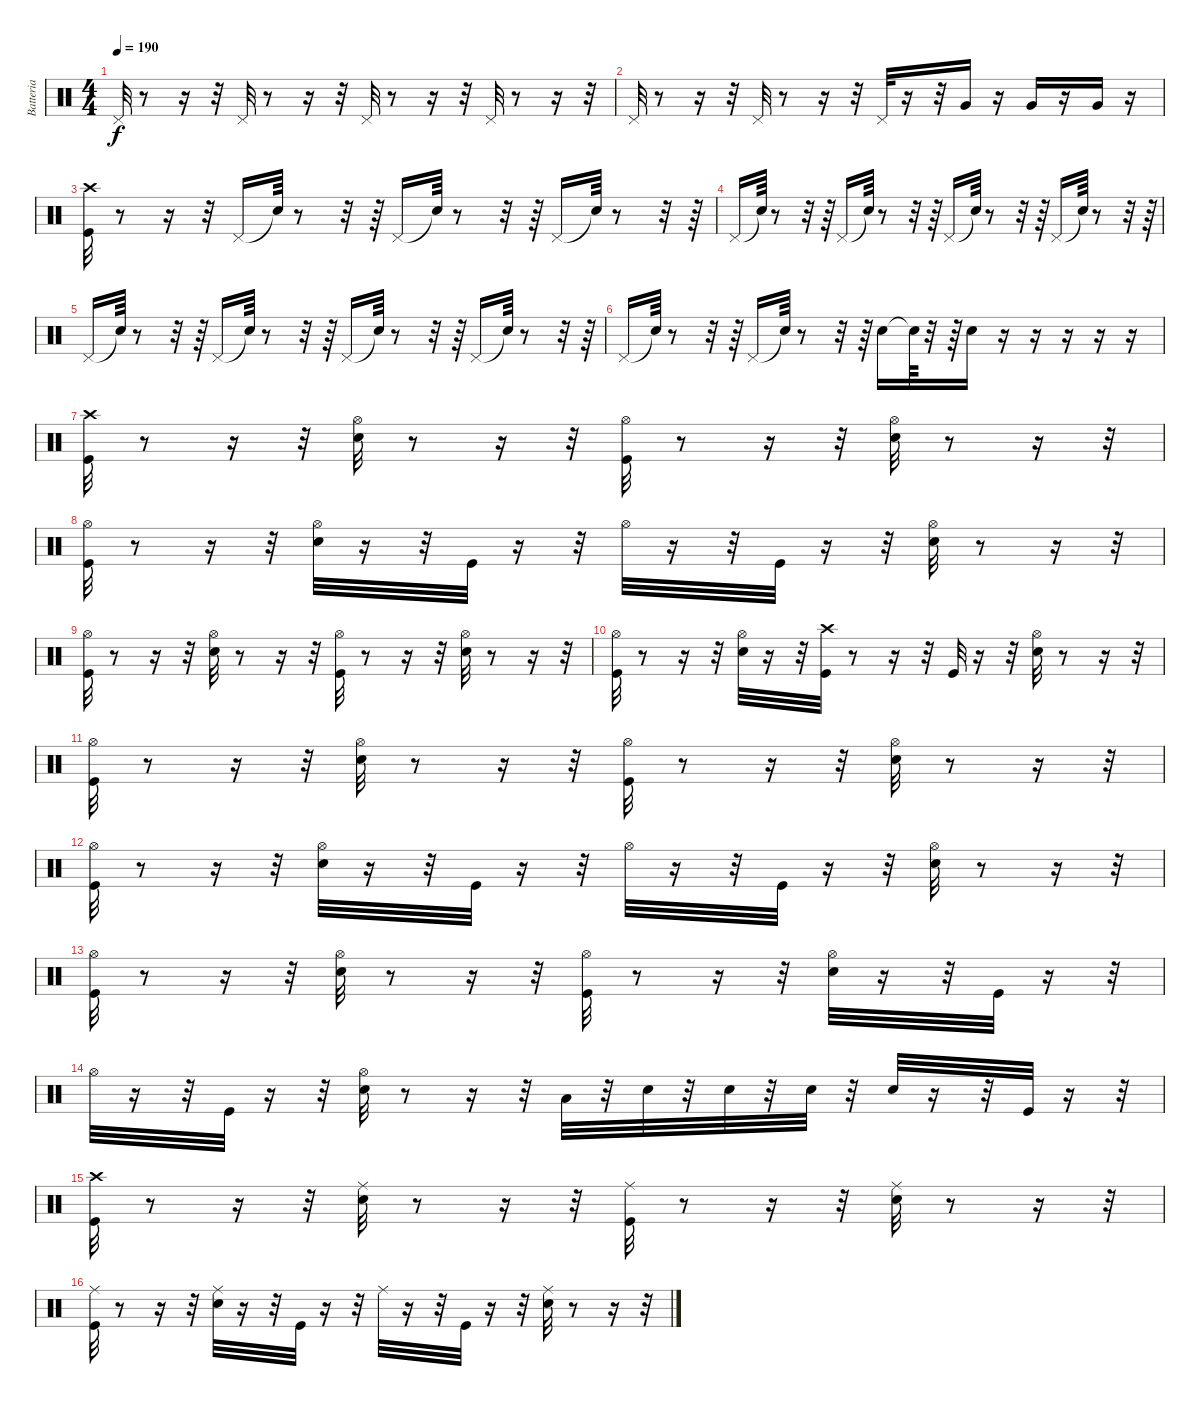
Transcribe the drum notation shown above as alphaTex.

\track ("Batteria" "Batteria") {instrument percussion}
\staff {score}
\articulation defaults
\ts (4 4)
\tempo 190
\clef neutral
\ks c "Pedal Hi-Hat (hit)".32{dy f}
r.8 r.16 r.32 "Pedal Hi-Hat (hit)".32 r.8 r.16 r.32 "Pedal Hi-Hat (hit)".32 r.8 r.16 r.32 "Pedal Hi-Hat (hit)".32 r.8 r.16 r.32 |
"Pedal Hi-Hat (hit)".32 r.8 r.16 r.32 "Pedal Hi-Hat (hit)".32 r.8 r.16 r.32 "Pedal Hi-Hat (hit)".32 r.16 r.32 "Very Low Tom (hit)".16 r.16 "Very Low Tom (hit)".16 r.16 "Very Low Tom (hit)".16 r.16 |
("Kick (hit)" "Crash high (hit)").32 r.8 r.16 r.32 "Pedal Hi-Hat (hit)".16 "Snare (hit)"{t}.64 r.8 r.32 r.64 "Pedal Hi-Hat (hit)".16 "Snare (hit)"{t}.64 r.8 r.32 r.64 "Pedal Hi-Hat (hit)".16 "Snare (hit)"{t}.64 r.8 r.32 r.64 |
"Pedal Hi-Hat (hit)".16 "Snare (hit)"{t}.64 r.8 r.32 r.64 "Pedal Hi-Hat (hit)".16 "Snare (hit)"{t}.64 r.8 r.32 r.64 "Pedal Hi-Hat (hit)".16 "Snare (hit)"{t}.64 r.8 r.32 r.64 "Pedal Hi-Hat (hit)".16 "Snare (hit)"{t}.64 r.8 r.32 r.64 |
"Pedal Hi-Hat (hit)".16 "Snare (hit)"{t}.64 r.8 r.32 r.64 "Pedal Hi-Hat (hit)".16 "Snare (hit)"{t}.64 r.8 r.32 r.64 "Pedal Hi-Hat (hit)".16 "Snare (hit)"{t}.64 r.8 r.32 r.64 "Pedal Hi-Hat (hit)".16 "Snare (hit)"{t}.64 r.8 r.32 r.64 |
"Pedal Hi-Hat (hit)".16 "Snare (hit)"{t}.64 r.8 r.32 r.64 "Pedal Hi-Hat (hit)".16 "Snare (hit)"{t}.64 r.8 r.32 r.64 "Snare (hit) 2".16 "Snare (hit)"{t}.64 r.32 r.64 "Snare (hit) 2".16 r.16 r.16 r.16 r.16 r.16 |
("Kick (hit)" "Crash high (hit)").32 r.8 r.16 r.32 ("Hi-Hat (open)" "Snare (hit) 2").32 r.8 r.16 r.32 ("Hi-Hat (open)" "Kick (hit)").32 r.8 r.16 r.32 ("Snare (hit) 2" "Hi-Hat (open)").32 r.8 r.16 r.32 |
("Hi-Hat (open)" "Kick (hit)").32 r.8 r.16 r.32 ("Hi-Hat (open)" "Snare (hit) 2").32 r.16 r.32 "Kick (hit)".32 r.16 r.32 "Hi-Hat (open)".32 r.16 r.32 "Kick (hit)".32 r.16 r.32 ("Hi-Hat (open)" "Snare (hit) 2").32 r.8 r.16 r.32 |
("Hi-Hat (open)" "Kick (hit)").32 r.8 r.16 r.32 ("Snare (hit) 2" "Hi-Hat (open)").32 r.8 r.16 r.32 ("Kick (hit)" "Hi-Hat (open)").32 r.8 r.16 r.32 ("Hi-Hat (open)" "Snare (hit) 2").32 r.8 r.16 r.32 |
("Hi-Hat (open)" "Kick (hit)").32 r.8 r.16 r.32 ("Hi-Hat (open)" "Snare (hit) 2").32 r.16 r.32 ("Crash high (hit)" "Kick (hit)").32 r.8 r.16 r.32 "Kick (hit)".32 r.16 r.32 ("Hi-Hat (open)" "Snare (hit) 2").32 r.8 r.16 r.32 |
("Hi-Hat (open)" "Kick (hit)").32 r.8 r.16 r.32 ("Snare (hit) 2" "Hi-Hat (open)").32 r.8 r.16 r.32 ("Kick (hit)" "Hi-Hat (open)").32 r.8 r.16 r.32 ("Snare (hit) 2" "Hi-Hat (open)").32 r.8 r.16 r.32 |
("Kick (hit)" "Hi-Hat (open)").32 r.8 r.16 r.32 ("Hi-Hat (open)" "Snare (hit) 2").32 r.16 r.32 "Kick (hit)".32 r.16 r.32 "Hi-Hat (open)".32 r.16 r.32 "Kick (hit)".32 r.16 r.32 ("Snare (hit) 2" "Hi-Hat (open)").32 r.8 r.16 r.32 |
("Hi-Hat (open)" "Kick (hit)").32 r.8 r.16 r.32 ("Hi-Hat (open)" "Snare (hit) 2").32 r.8 r.16 r.32 ("Kick (hit)" "Hi-Hat (open)").32 r.8 r.16 r.32 ("Snare (hit) 2" "Hi-Hat (open)").32 r.16 r.32 "Kick (hit)".32 r.16 r.32 |
"Hi-Hat (open)".32 r.16 r.32 "Kick (hit)".32 r.16 r.32 ("Snare (hit) 2" "Hi-Hat (open)").32 r.8 r.16 r.32 "Low Tom (hit)".32 r.32 "Snare (hit) 2".32 r.32 "Snare (hit) 2".32 r.32 "Snare (hit) 2".32 r.32 "Snare (hit) 2".32 r.16 r.32 "Kick (hit)".32 r.16 r.32 |
("Crash high (hit)" "Kick (hit)").32 r.8 r.16 r.32 ("Snare (hit) 2" "Ride (middle)").32 r.8 r.16 r.32 ("Kick (hit)" "Ride (middle)").32 r.8 r.16 r.32 ("Ride (middle)" "Snare (hit) 2").32 r.8 r.16 r.32 |
("Ride (middle)" "Kick (hit)").32 r.8 r.16 r.32 ("Snare (hit) 2" "Ride (middle)").32 r.16 r.32 "Kick (hit)".32 r.16 r.32 "Ride (middle)".32 r.16 r.32 "Kick (hit)".32 r.16 r.32 ("Ride (middle)" "Snare (hit) 2").32 r.8 r.16 r.32
